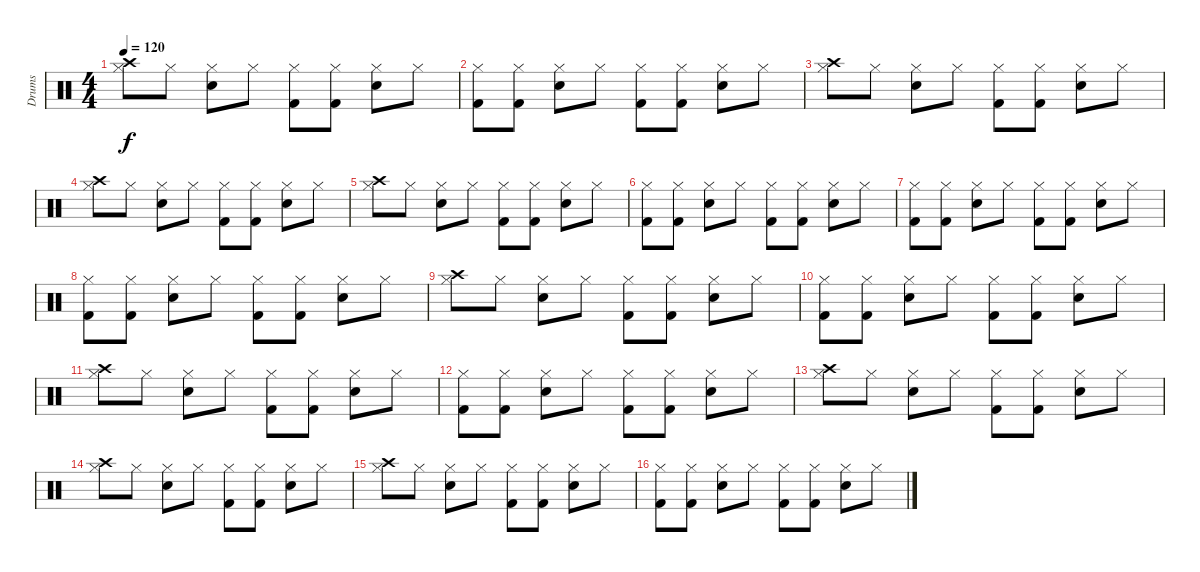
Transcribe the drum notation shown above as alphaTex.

\track ("Drums" "Drums") {instrument percussion}
\staff {score}
\articulation defaults
\ts (4 4)
\tempo 120
\clef neutral
\ks c
("Crash high (hit)" "Hi-Hat (closed)").8{dy f} "Hi-Hat (closed)".8 ("Hi-Hat (closed)" "Snare (hit) 2").8 "Hi-Hat (closed)".8 ("Hi-Hat (closed)" "Kick (hit) 2").8 ("Hi-Hat (closed)" "Kick (hit) 2").8 ("Hi-Hat (closed)" "Snare (hit) 2").8 "Hi-Hat (closed)".8 |
("Hi-Hat (closed)" "Kick (hit) 2").8 ("Hi-Hat (closed)" "Kick (hit) 2").8 ("Hi-Hat (closed)" "Snare (hit) 2").8 "Hi-Hat (closed)".8 ("Hi-Hat (closed)" "Kick (hit) 2").8 ("Hi-Hat (closed)" "Kick (hit) 2").8 ("Hi-Hat (closed)" "Snare (hit) 2").8 "Hi-Hat (closed)".8 |
("Crash high (hit)" "Hi-Hat (closed)").8 "Hi-Hat (closed)".8 ("Hi-Hat (closed)" "Snare (hit) 2").8 "Hi-Hat (closed)".8 ("Hi-Hat (closed)" "Kick (hit) 2").8 ("Hi-Hat (closed)" "Kick (hit) 2").8 ("Hi-Hat (closed)" "Snare (hit) 2").8 "Hi-Hat (closed)".8 |
("Crash high (hit)" "Hi-Hat (closed)").8 "Hi-Hat (closed)".8 ("Hi-Hat (closed)" "Snare (hit) 2").8 "Hi-Hat (closed)".8 ("Hi-Hat (closed)" "Kick (hit) 2").8 ("Hi-Hat (closed)" "Kick (hit) 2").8 ("Hi-Hat (closed)" "Snare (hit) 2").8 "Hi-Hat (closed)".8 |
("Crash high (hit)" "Hi-Hat (closed)").8 "Hi-Hat (closed)".8 ("Hi-Hat (closed)" "Snare (hit) 2").8 "Hi-Hat (closed)".8 ("Hi-Hat (closed)" "Kick (hit) 2").8 ("Hi-Hat (closed)" "Kick (hit) 2").8 ("Hi-Hat (closed)" "Snare (hit) 2").8 "Hi-Hat (closed)".8 |
("Hi-Hat (closed)" "Kick (hit) 2").8 ("Hi-Hat (closed)" "Kick (hit) 2").8 ("Hi-Hat (closed)" "Snare (hit) 2").8 "Hi-Hat (closed)".8 ("Hi-Hat (closed)" "Kick (hit) 2").8 ("Hi-Hat (closed)" "Kick (hit) 2").8 ("Hi-Hat (closed)" "Snare (hit) 2").8 "Hi-Hat (closed)".8 |
("Hi-Hat (closed)" "Kick (hit) 2").8 ("Hi-Hat (closed)" "Kick (hit) 2").8 ("Hi-Hat (closed)" "Snare (hit) 2").8 "Hi-Hat (closed)".8 ("Hi-Hat (closed)" "Kick (hit) 2").8 ("Hi-Hat (closed)" "Kick (hit) 2").8 ("Hi-Hat (closed)" "Snare (hit) 2").8 "Hi-Hat (closed)".8 |
("Hi-Hat (closed)" "Kick (hit) 2").8 ("Hi-Hat (closed)" "Kick (hit) 2").8 ("Hi-Hat (closed)" "Snare (hit) 2").8 "Hi-Hat (closed)".8 ("Hi-Hat (closed)" "Kick (hit) 2").8 ("Hi-Hat (closed)" "Kick (hit) 2").8 ("Hi-Hat (closed)" "Snare (hit) 2").8 "Hi-Hat (closed)".8 |
("Crash high (hit)" "Hi-Hat (closed)").8 "Hi-Hat (closed)".8 ("Hi-Hat (closed)" "Snare (hit) 2").8 "Hi-Hat (closed)".8 ("Hi-Hat (closed)" "Kick (hit) 2").8 ("Hi-Hat (closed)" "Kick (hit) 2").8 ("Hi-Hat (closed)" "Snare (hit) 2").8 "Hi-Hat (closed)".8 |
("Hi-Hat (closed)" "Kick (hit) 2").8 ("Hi-Hat (closed)" "Kick (hit) 2").8 ("Hi-Hat (closed)" "Snare (hit) 2").8 "Hi-Hat (closed)".8 ("Hi-Hat (closed)" "Kick (hit) 2").8 ("Hi-Hat (closed)" "Kick (hit) 2").8 ("Hi-Hat (closed)" "Snare (hit) 2").8 "Hi-Hat (closed)".8 |
("Crash high (hit)" "Hi-Hat (closed)").8 "Hi-Hat (closed)".8 ("Hi-Hat (closed)" "Snare (hit) 2").8 "Hi-Hat (closed)".8 ("Hi-Hat (closed)" "Kick (hit) 2").8 ("Hi-Hat (closed)" "Kick (hit) 2").8 ("Hi-Hat (closed)" "Snare (hit) 2").8 "Hi-Hat (closed)".8 |
("Hi-Hat (closed)" "Kick (hit) 2").8 ("Hi-Hat (closed)" "Kick (hit) 2").8 ("Hi-Hat (closed)" "Snare (hit) 2").8 "Hi-Hat (closed)".8 ("Hi-Hat (closed)" "Kick (hit) 2").8 ("Hi-Hat (closed)" "Kick (hit) 2").8 ("Hi-Hat (closed)" "Snare (hit) 2").8 "Hi-Hat (closed)".8 |
("Crash high (hit)" "Hi-Hat (closed)").8 "Hi-Hat (closed)".8 ("Hi-Hat (closed)" "Snare (hit) 2").8 "Hi-Hat (closed)".8 ("Hi-Hat (closed)" "Kick (hit) 2").8 ("Hi-Hat (closed)" "Kick (hit) 2").8 ("Hi-Hat (closed)" "Snare (hit) 2").8 "Hi-Hat (closed)".8 |
("Crash high (hit)" "Hi-Hat (closed)").8 "Hi-Hat (closed)".8 ("Hi-Hat (closed)" "Snare (hit) 2").8 "Hi-Hat (closed)".8 ("Hi-Hat (closed)" "Kick (hit) 2").8 ("Hi-Hat (closed)" "Kick (hit) 2").8 ("Hi-Hat (closed)" "Snare (hit) 2").8 "Hi-Hat (closed)".8 |
("Crash high (hit)" "Hi-Hat (closed)").8 "Hi-Hat (closed)".8 ("Hi-Hat (closed)" "Snare (hit) 2").8 "Hi-Hat (closed)".8 ("Hi-Hat (closed)" "Kick (hit) 2").8 ("Hi-Hat (closed)" "Kick (hit) 2").8 ("Hi-Hat (closed)" "Snare (hit) 2").8 "Hi-Hat (closed)".8 |
("Hi-Hat (closed)" "Kick (hit) 2").8 ("Hi-Hat (closed)" "Kick (hit) 2").8 ("Hi-Hat (closed)" "Snare (hit) 2").8 "Hi-Hat (closed)".8 ("Hi-Hat (closed)" "Kick (hit) 2").8 ("Hi-Hat (closed)" "Kick (hit) 2").8 ("Hi-Hat (closed)" "Snare (hit) 2").8 "Hi-Hat (closed)".8
